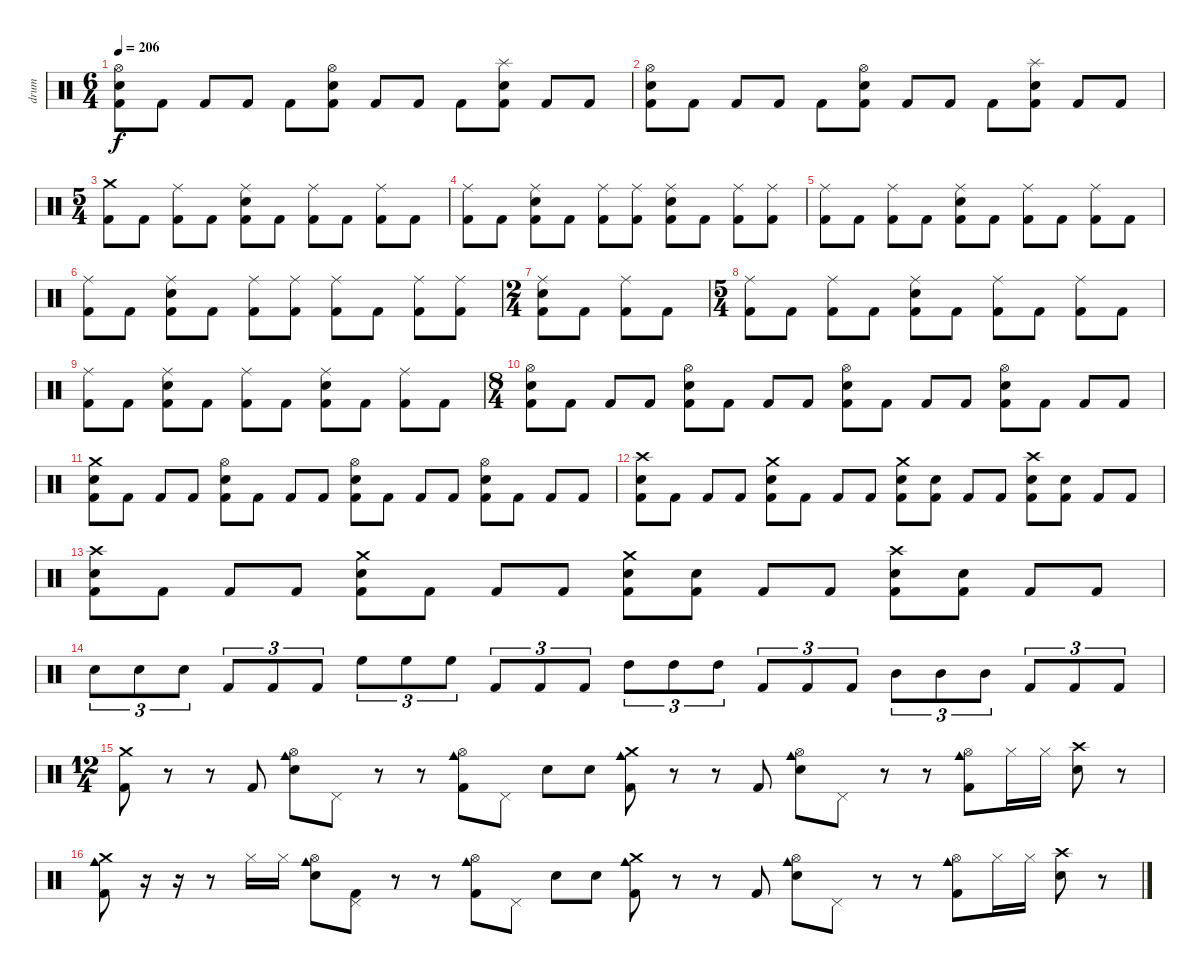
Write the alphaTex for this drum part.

\track ("drum" "drum") {instrument percussion}
\staff {score}
\articulation defaults
\ts (6 4)
\tempo 206
\clef neutral
\ks c
("Hi-Hat (open)" "Electric Snare (hit)" "Kick (hit) 2").8{dy f} "Kick (hit) 2".8 "Kick (hit) 2".8 "Kick (hit) 2".8 "Kick (hit) 2".8 ("Hi-Hat (open)" "Electric Snare (hit)" "Kick (hit) 2").8 "Kick (hit) 2".8 "Kick (hit) 2".8 "Kick (hit) 2".8 ("Splash (hit)" "Electric Snare (hit)" "Kick (hit) 2").8 "Kick (hit) 2".8 "Kick (hit) 2".8 |
("Hi-Hat (open)" "Electric Snare (hit)" "Kick (hit) 2").8 "Kick (hit) 2".8 "Kick (hit) 2".8 "Kick (hit) 2".8 "Kick (hit) 2".8 ("Hi-Hat (open)" "Electric Snare (hit)" "Kick (hit) 2").8 "Kick (hit) 2".8 "Kick (hit) 2".8 "Kick (hit) 2".8 ("Splash (hit)" "Electric Snare (hit)" "Kick (hit) 2").8 "Kick (hit) 2".8 "Kick (hit) 2".8 |
\ts (5 4)
("Crash medium (hit)" "Kick (hit) 2").8 "Kick (hit) 2".8 ("Ride (middle)" "Kick (hit) 2").8 "Kick (hit) 2".8 ("Ride (middle)" "Electric Snare (hit)" "Kick (hit) 2").8 "Kick (hit) 2".8 ("Ride (middle)" "Kick (hit) 2").8 "Kick (hit) 2".8 ("Ride (middle)" "Kick (hit) 2").8 "Kick (hit) 2".8 |
("Ride (middle)" "Kick (hit) 2").8 "Kick (hit) 2".8 ("Ride (middle)" "Electric Snare (hit)" "Kick (hit) 2").8 "Kick (hit) 2".8 ("Ride (middle)" "Kick (hit) 2").8 ("Ride (middle)" "Kick (hit) 2").8 ("Ride (middle)" "Electric Snare (hit)" "Kick (hit) 2").8 "Kick (hit) 2".8 ("Ride (middle)" "Kick (hit) 2").8 ("Ride (middle)" "Kick (hit) 2").8 |
("Ride (middle)" "Kick (hit) 2").8 "Kick (hit) 2".8 ("Ride (middle)" "Kick (hit) 2").8 "Kick (hit) 2".8 ("Ride (middle)" "Electric Snare (hit)" "Kick (hit) 2").8 "Kick (hit) 2".8 ("Ride (middle)" "Kick (hit) 2").8 "Kick (hit) 2".8 ("Ride (middle)" "Kick (hit) 2").8 "Kick (hit) 2".8 |
("Ride (middle)" "Kick (hit) 2").8 "Kick (hit) 2".8 ("Ride (middle)" "Electric Snare (hit)" "Kick (hit) 2").8 "Kick (hit) 2".8 ("Ride (middle)" "Kick (hit) 2").8 ("Ride (middle)" "Kick (hit) 2").8 ("Ride (middle)" "Kick (hit) 2").8 "Kick (hit) 2".8 ("Ride (middle)" "Kick (hit) 2").8 ("Ride (middle)" "Kick (hit) 2").8 |
\ts (2 4)
("Ride (middle)" "Electric Snare (hit)" "Kick (hit) 2").8 "Kick (hit) 2".8 ("Ride (middle)" "Kick (hit) 2").8 "Kick (hit) 2".8 |
\ts (5 4)
("Ride (middle)" "Kick (hit) 2").8 "Kick (hit) 2".8 ("Ride (middle)" "Kick (hit) 2").8 "Kick (hit) 2".8 ("Ride (middle)" "Electric Snare (hit)" "Kick (hit) 2").8 "Kick (hit) 2".8 ("Ride (middle)" "Kick (hit) 2").8 "Kick (hit) 2".8 ("Ride (middle)" "Kick (hit) 2").8 "Kick (hit) 2".8 |
("Ride (middle)" "Kick (hit) 2").8 "Kick (hit) 2".8 ("Ride (middle)" "Electric Snare (hit)" "Kick (hit) 2").8 "Kick (hit) 2".8 ("Ride (middle)" "Kick (hit) 2").8 "Kick (hit) 2".8 ("Ride (middle)" "Electric Snare (hit)" "Kick (hit) 2").8 "Kick (hit) 2".8 ("Ride (middle)" "Kick (hit) 2").8 "Kick (hit) 2".8 |
\ts (8 4)
("Hi-Hat (open)" "Electric Snare (hit)" "Kick (hit) 2").8 "Kick (hit) 2".8 "Kick (hit) 2".8 "Kick (hit) 2".8 ("Hi-Hat (open)" "Electric Snare (hit)" "Kick (hit) 2").8 "Kick (hit) 2".8 "Kick (hit) 2".8 "Kick (hit) 2".8 ("Hi-Hat (open)" "Electric Snare (hit)" "Kick (hit) 2").8 "Kick (hit) 2".8 "Kick (hit) 2".8 "Kick (hit) 2".8 ("Hi-Hat (open)" "Electric Snare (hit)" "Kick (hit) 2").8 "Kick (hit) 2".8 "Kick (hit) 2".8 "Kick (hit) 2".8 |
("Crash medium (hit)" "Electric Snare (hit)" "Kick (hit) 2").8 "Kick (hit) 2".8 "Kick (hit) 2".8 "Kick (hit) 2".8 ("Hi-Hat (open)" "Electric Snare (hit)" "Kick (hit) 2").8 "Kick (hit) 2".8 "Kick (hit) 2".8 "Kick (hit) 2".8 ("Hi-Hat (open)" "Electric Snare (hit)" "Kick (hit) 2").8 "Kick (hit) 2".8 "Kick (hit) 2".8 "Kick (hit) 2".8 ("Hi-Hat (open)" "Electric Snare (hit)" "Kick (hit) 2").8 "Kick (hit) 2".8 "Kick (hit) 2".8 "Kick (hit) 2".8 |
("Crash high (hit)" "Electric Snare (hit)" "Kick (hit) 2").8 "Kick (hit) 2".8 "Kick (hit) 2".8 "Kick (hit) 2".8 ("Crash medium (hit)" "Electric Snare (hit)" "Kick (hit) 2").8 "Kick (hit) 2".8 "Kick (hit) 2".8 "Kick (hit) 2".8 ("Crash medium (hit)" "Electric Snare (hit)" "Kick (hit) 2").8 ("Electric Snare (hit)" "Kick (hit) 2").8 "Kick (hit) 2".8 "Kick (hit) 2".8 ("Crash high (hit)" "Electric Snare (hit)" "Kick (hit) 2").8 ("Electric Snare (hit)" "Kick (hit) 2").8 "Kick (hit) 2".8 "Kick (hit) 2".8 |
("Crash high (hit)" "Electric Snare (hit)" "Kick (hit) 2").8 "Kick (hit) 2".8 "Kick (hit) 2".8 "Kick (hit) 2".8 ("Crash medium (hit)" "Electric Snare (hit)" "Kick (hit) 2").8 "Kick (hit) 2".8 "Kick (hit) 2".8 "Kick (hit) 2".8 ("Crash medium (hit)" "Electric Snare (hit)" "Kick (hit) 2").8 ("Electric Snare (hit)" "Kick (hit) 2").8 "Kick (hit) 2".8 "Kick (hit) 2".8 ("Crash high (hit)" "Electric Snare (hit)" "Kick (hit) 2").8 ("Electric Snare (hit)" "Kick (hit) 2").8 "Kick (hit) 2".8 "Kick (hit) 2".8 |
"Electric Snare (hit)".8{tu (3 2)} "Electric Snare (hit)".8{tu (3 2)} "Electric Snare (hit)".8{tu (3 2)} "Kick (hit) 2".8{tu (3 2)} "Kick (hit) 2".8{tu (3 2)} "Kick (hit) 2".8{tu (3 2)} "High Floor Tom (hit)".8{tu (3 2)} "High Floor Tom (hit)".8{tu (3 2)} "High Floor Tom (hit)".8{tu (3 2)} "Kick (hit) 2".8{tu (3 2)} "Kick (hit) 2".8{tu (3 2)} "Kick (hit) 2".8{tu (3 2)} "High Tom (hit)".8{tu (3 2)} "High Tom (hit)".8{tu (3 2)} "High Tom (hit)".8{tu (3 2)} "Kick (hit) 2".8{tu (3 2)} "Kick (hit) 2".8{tu (3 2)} "Kick (hit) 2".8{tu (3 2)} "Mid Tom (hit)".8{tu (3 2)} "Mid Tom (hit)".8{tu (3 2)} "Mid Tom (hit)".8{tu (3 2)} "Kick (hit) 2".8{tu (3 2)} "Kick (hit) 2".8{tu (3 2)} "Kick (hit) 2".8{tu (3 2)} |
\ts (12 4)
("Crash medium (hit)" "Kick (hit) 2").8 r.8 r.8 "Kick (hit) 2".8 ("Cowbell medium (hit)" "Hi-Hat (open)" "Electric Snare (hit)").8 "Pedal Hi-Hat (hit)".8 r.8 r.8 ("Cowbell medium (hit)" "Hi-Hat (open)" "Kick (hit) 2").8 "Pedal Hi-Hat (hit)".8 "Electric Snare (hit)".8 "Electric Snare (hit)".8 ("Crash medium (hit)" "Cowbell medium (hit)" "Kick (hit) 2").8 r.8 r.8 "Kick (hit) 2".8 ("Cowbell medium (hit)" "Hi-Hat (open)" "Electric Snare (hit)").8 "Pedal Hi-Hat (hit)".8 r.8 r.8 ("Cowbell medium (hit)" "Hi-Hat (open)" "Kick (hit) 2").8 "Hi-Hat (closed)".16 "Hi-Hat (closed)".16 ("Crash high (hit)" "Electric Snare (hit)").8 r.8 |
("Crash medium (hit)" "Cowbell medium (hit)" "Kick (hit) 2").8 r.16 r.16 r.8 "Hi-Hat (closed)".16 "Hi-Hat (closed)".16 ("Cowbell medium (hit)" "Hi-Hat (open)" "Electric Snare (hit)").8 ("Pedal Hi-Hat (hit)" "Kick (hit) 2").8 r.8 r.8 ("Cowbell medium (hit)" "Hi-Hat (open)" "Kick (hit) 2").8 "Pedal Hi-Hat (hit)".8 "Electric Snare (hit)".8 "Electric Snare (hit)".8 ("Crash medium (hit)" "Cowbell medium (hit)" "Kick (hit) 2").8 r.8 r.8 "Kick (hit) 2".8 ("Cowbell medium (hit)" "Hi-Hat (open)" "Electric Snare (hit)").8 "Pedal Hi-Hat (hit)".8 r.8 r.8 ("Cowbell medium (hit)" "Hi-Hat (open)" "Kick (hit) 2").8 "Hi-Hat (closed)".16 "Hi-Hat (closed)".16 ("Crash high (hit)" "Electric Snare (hit)").8 r.8
